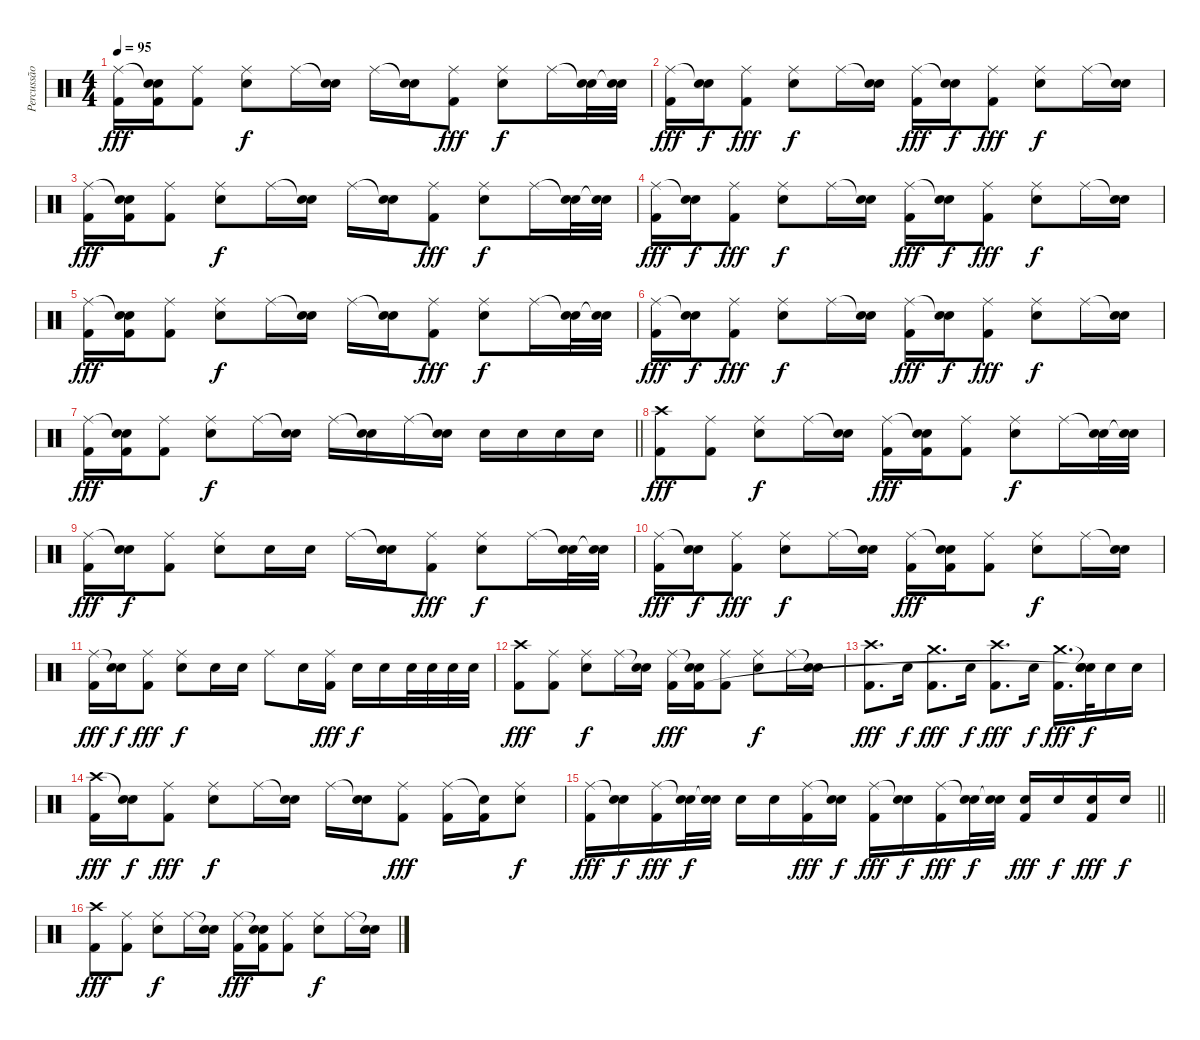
\track ("Percussão" "Percussão") {instrument percussion}
\staff {score}
\articulation defaults
\ts (4 4)
\tempo 95
\clef neutral
\ks c
("Ride (middle)" "Kick (hit) 2").16{dy fff} ("Snare (hit)"{t} "Snare (hit) 2" "Kick (hit) 2").16 ("Ride (middle)" "Kick (hit) 2").8 ("Ride (middle)" "Snare (hit) 2").8{dy f} "Ride (middle)".16 ("Snare (hit)"{t} "Snare (hit) 2").16 "Ride (middle)".16 ("Snare (hit)"{t} "Snare (hit) 2").16 ("Ride (middle)" "Kick (hit) 2").8{dy fff} ("Ride (middle)" "Snare (hit) 2").8{dy f} "Ride (middle)".16 ("Snare (hit)"{t} "Snare (hit) 2").32 ("Snare (hit)"{t} "Snare (hit) 2").32 |
("Ride (middle)" "Kick (hit) 2").16{dy fff} ("Snare (hit)"{t} "Snare (hit) 2").16{dy f} ("Ride (middle)" "Kick (hit) 2").8{dy fff} ("Ride (middle)" "Snare (hit) 2").8{dy f} "Ride (middle)".16 ("Snare (hit)"{t} "Snare (hit) 2").16 ("Ride (middle)" "Kick (hit) 2").16{dy fff} ("Snare (hit)"{t} "Snare (hit) 2").16{dy f} ("Ride (middle)" "Kick (hit) 2").8{dy fff} ("Ride (middle)" "Snare (hit) 2").8{dy f} "Ride (middle)".16 ("Snare (hit)"{t} "Snare (hit) 2").16 |
("Ride (middle)" "Kick (hit) 2").16{dy fff} ("Snare (hit)"{t} "Snare (hit) 2" "Kick (hit) 2").16 ("Ride (middle)" "Kick (hit) 2").8 ("Ride (middle)" "Snare (hit) 2").8{dy f} "Ride (middle)".16 ("Snare (hit)"{t} "Snare (hit) 2").16 "Ride (middle)".16 ("Snare (hit)"{t} "Snare (hit) 2").16 ("Ride (middle)" "Kick (hit) 2").8{dy fff} ("Ride (middle)" "Snare (hit) 2").8{dy f} "Ride (middle)".16 ("Snare (hit)"{t} "Snare (hit) 2").32 ("Snare (hit)"{t} "Snare (hit) 2").32 |
("Ride (middle)" "Kick (hit) 2").16{dy fff} ("Snare (hit)"{t} "Snare (hit) 2").16{dy f} ("Ride (middle)" "Kick (hit) 2").8{dy fff} ("Ride (middle)" "Snare (hit) 2").8{dy f} "Ride (middle)".16 ("Snare (hit)"{t} "Snare (hit) 2").16 ("Ride (middle)" "Kick (hit) 2").16{dy fff} ("Snare (hit)"{t} "Snare (hit) 2").16{dy f} ("Ride (middle)" "Kick (hit) 2").8{dy fff} ("Ride (middle)" "Snare (hit) 2").8{dy f} "Ride (middle)".16 ("Snare (hit)"{t} "Snare (hit) 2").16 |
("Ride (middle)" "Kick (hit) 2").16{dy fff} ("Snare (hit)"{t} "Snare (hit) 2" "Kick (hit) 2").16 ("Ride (middle)" "Kick (hit) 2").8 ("Ride (middle)" "Snare (hit) 2").8{dy f} "Ride (middle)".16 ("Snare (hit)"{t} "Snare (hit) 2").16 "Ride (middle)".16 ("Snare (hit)"{t} "Snare (hit) 2").16 ("Ride (middle)" "Kick (hit) 2").8{dy fff} ("Ride (middle)" "Snare (hit) 2").8{dy f} "Ride (middle)".16 ("Snare (hit)"{t} "Snare (hit) 2").32 ("Snare (hit)"{t} "Snare (hit) 2").32 |
("Ride (middle)" "Kick (hit) 2").16{dy fff} ("Snare (hit)"{t} "Snare (hit) 2").16{dy f} ("Ride (middle)" "Kick (hit) 2").8{dy fff} ("Ride (middle)" "Snare (hit) 2").8{dy f} "Ride (middle)".16 ("Snare (hit)"{t} "Snare (hit) 2").16 ("Ride (middle)" "Kick (hit) 2").16{dy fff} ("Snare (hit)"{t} "Snare (hit) 2").16{dy f} ("Ride (middle)" "Kick (hit) 2").8{dy fff} ("Ride (middle)" "Snare (hit) 2").8{dy f} "Ride (middle)".16 ("Snare (hit)"{t} "Snare (hit) 2").16 |
\barLineRight lightlight
("Ride (middle)" "Kick (hit) 2").16{dy fff} ("Snare (hit)"{t} "Snare (hit) 2" "Kick (hit) 2").16 ("Ride (middle)" "Kick (hit) 2").8 ("Ride (middle)" "Snare (hit) 2").8{dy f} "Ride (middle)".16 ("Snare (hit)"{t} "Snare (hit) 2").16 "Ride (middle)".16 ("Snare (hit)"{t} "Snare (hit) 2").16 "Ride (middle)".16 ("Snare (hit)"{t} "Snare (hit) 2").16 "Snare (hit) 2".16 "Snare (hit) 2".16 "Snare (hit) 2".16 "Snare (hit) 2".16 |
("Crash high (hit)" "Kick (hit) 2").8{dy fff} ("Ride (middle)" "Kick (hit) 2").8 ("Ride (middle)" "Snare (hit) 2").8{dy f} "Ride (middle)".16 ("Snare (hit)"{t} "Snare (hit) 2").16 ("Ride (middle)" "Kick (hit) 2").16{dy fff} ("Snare (hit)"{t} "Snare (hit) 2" "Kick (hit) 2").16 ("Ride (middle)" "Kick (hit) 2").8 ("Ride (middle)" "Snare (hit) 2").8{dy f} "Ride (middle)".16 ("Snare (hit)"{t} "Snare (hit) 2").32 ("Snare (hit)"{t} "Snare (hit) 2").32 |
("Ride (middle)" "Kick (hit) 2").16{dy fff} ("Snare (hit)"{t} "Snare (hit) 2").16{dy f} ("Ride (middle)" "Kick (hit) 2").8 ("Ride (middle)" "Snare (hit) 2").8 "Snare (hit) 2".16 "Snare (hit) 2".16 "Ride (middle)".16 ("Snare (hit)"{t} "Snare (hit) 2").16 ("Ride (middle)" "Kick (hit) 2").8{dy fff} ("Ride (middle)" "Snare (hit) 2").8{dy f} "Ride (middle)".16 ("Snare (hit)"{t} "Snare (hit) 2").32 ("Snare (hit)"{t} "Snare (hit) 2").32 |
("Ride (middle)" "Kick (hit) 2").16{dy fff} ("Snare (hit)"{t} "Snare (hit) 2").16{dy f} ("Ride (middle)" "Kick (hit) 2").8{dy fff} ("Ride (middle)" "Snare (hit) 2").8{dy f} "Ride (middle)".16 ("Snare (hit)"{t} "Snare (hit) 2").16 ("Ride (middle)" "Kick (hit) 2").16{dy fff} ("Snare (hit)"{t} "Snare (hit) 2" "Kick (hit) 2").16 ("Ride (middle)" "Kick (hit) 2").8 ("Ride (middle)" "Snare (hit) 2").8{dy f} "Ride (middle)".16 ("Snare (hit)"{t} "Snare (hit) 2").16 |
("Ride (middle)" "Kick (hit) 2").16{dy fff} ("Snare (hit)"{t} "Snare (hit) 2").16{dy f} ("Ride (middle)" "Kick (hit) 2").8{dy fff} ("Ride (middle)" "Snare (hit) 2").8{dy f} "Snare (hit) 2".16 "Snare (hit) 2".16 "Ride (middle)".8 "Snare (hit) 2".16 ("Ride (middle)" "Kick (hit) 2").16{dy fff} "Snare (hit) 2".16{dy f} "Snare (hit) 2".16 "Snare (hit) 2".32 "Snare (hit) 2".32 "Snare (hit) 2".32 "Snare (hit) 2".32 |
("Crash high (hit)" "Kick (hit) 2").8{dy fff} ("Ride (middle)" "Kick (hit) 2").8 ("Ride (middle)" "Snare (hit) 2").8{dy f} "Ride (middle)".16 ("Snare (hit)"{t} "Snare (hit) 2").16 ("Ride (middle)" "Kick (hit) 2").16{dy fff} ("Snare (hit)"{t} "Snare (hit) 2" "Kick (hit) 2").16 ("Ride (middle)" "Kick (hit) 2").8 ("Ride (middle)" "Snare (hit) 2").8{dy f} "Ride (middle)".16 ("Snare (hit)"{t} "Snare (hit) 2").16 |
("Crash high (hit)" "Kick (hit) 2").8{d dy fff} "Snare (hit) 2".16{dy f} ("Crash medium (hit)" "Kick (hit) 2").8{d dy fff} "Snare (hit) 2".16{dy f} ("Crash high (hit)" "Kick (hit) 2").8{d dy fff} "Snare (hit) 2".16{dy f} ("Crash medium (hit)" "Kick (hit) 2").16{d dy fff} ("Snare (hit)"{t} "Snare (hit) 2" "Snare (hit)"{t}).32{dy f} "Snare (hit) 2".16 "Snare (hit) 2".16 |
("Crash high (hit)" "Kick (hit) 2").16{dy fff} ("Snare (hit)"{t} "Snare (hit) 2").16{dy f} ("Ride (middle)" "Kick (hit) 2").8{dy fff} ("Ride (middle)" "Snare (hit) 2").8{dy f} "Ride (middle)".16 ("Snare (hit)"{t} "Snare (hit) 2").16 "Ride (middle)".16 ("Snare (hit)"{t} "Snare (hit) 2").16 ("Ride (middle)" "Kick (hit) 2").8{dy fff} ("Ride (middle)" "Kick (hit) 2").16 ("Snare (hit)"{t} "Kick (hit) 2").16 ("Ride (middle)" "Snare (hit) 2").8{dy f} |
\barLineRight lightlight
("Ride (middle)" "Kick (hit) 2").16{dy fff} ("Snare (hit)"{t} "Snare (hit) 2").16{dy f} ("Ride (middle)" "Kick (hit) 2").16{dy fff} ("Snare (hit)"{t} "Snare (hit) 2").32{dy f} ("Snare (hit)"{t} "Snare (hit) 2").32 "Snare (hit) 2".16 "Snare (hit) 2".16 ("Ride (middle)" "Kick (hit) 2").16{dy fff} ("Snare (hit)"{t} "Snare (hit) 2").16{dy f} ("Ride (middle)" "Kick (hit) 2").16{dy fff} ("Snare (hit)"{t} "Snare (hit) 2").16{dy f} ("Ride (middle)" "Kick (hit) 2").16{dy fff} ("Snare (hit)"{t} "Snare (hit) 2").32{dy f} ("Snare (hit)"{t} "Snare (hit) 2").32 ("Snare (hit) 2" "Kick (hit) 2").16{dy fff} "Snare (hit) 2".16{dy f} ("Snare (hit) 2" "Kick (hit) 2").16{dy fff} "Snare (hit) 2".16{dy f} |
("Crash high (hit)" "Kick (hit) 2").8{dy fff} ("Ride (middle)" "Kick (hit) 2").8 ("Ride (middle)" "Snare (hit) 2").8{dy f} "Ride (middle)".16 ("Snare (hit)"{t} "Snare (hit) 2").16 ("Ride (middle)" "Kick (hit) 2").16{dy fff} ("Snare (hit)"{t} "Snare (hit) 2" "Kick (hit) 2").16 ("Ride (middle)" "Kick (hit) 2").8 ("Ride (middle)" "Snare (hit) 2").8{dy f} "Ride (middle)".16 ("Snare (hit)"{t} "Snare (hit) 2").16
